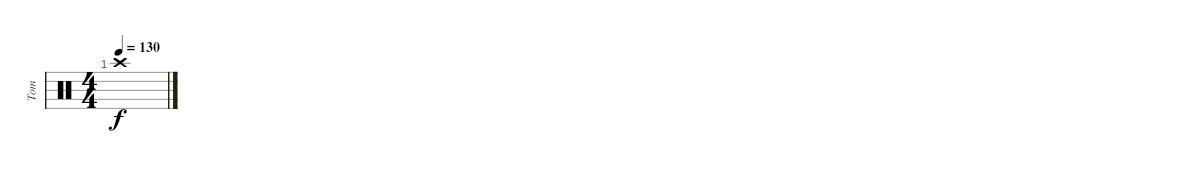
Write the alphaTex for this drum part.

\track ("Tom" "Tom") {instrument percussion}
\staff {score}
\articulation defaults
\ts (4 4)
\tempo 130
\clef neutral
\ks c "Crash high (hit)".1{dy f}
